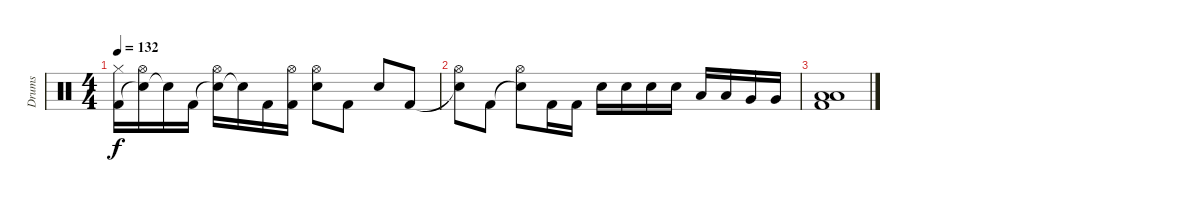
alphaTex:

\track ("Drums" "Drums") {instrument percussion}
\staff {score}
\articulation defaults
\ts (4 4)
\tempo 132
\clef neutral
\ks c
("Kick (hit) 2" "Hi-Hat (closed)").16{dy f} ("Snare (hit)"{t} "Hi-Hat (open)").16 "Snare (hit)"{t}.16 "Kick (hit) 2".16 ("Snare (hit)"{t} "Hi-Hat (open)").16 "Snare (hit)"{t}.16 "Kick (hit) 2".16 ("Kick (hit) 2" "Hi-Hat (open)").16 ("Electric Snare (hit)" "Hi-Hat (open)").8 "Kick (hit) 2".8 "Electric Snare (hit)".8 "Kick (hit) 2".8 |
("Snare (hit)"{t} "Hi-Hat (open)").8 "Kick (hit) 2".8 ("Snare (hit)"{t} "Hi-Hat (open)").8 "Kick (hit) 2".16 "Kick (hit) 2".16 "Electric Snare (hit)".16 "Electric Snare (hit)".16 "Electric Snare (hit)".16 "Electric Snare (hit)".16 "Low Tom (hit)".16 "Low Tom (hit)".16 "Very Low Tom (hit)".16 "Very Low Tom (hit)".16 |
("Low Tom (hit)" "Low Floor Tom (hit)" "Kick (hit) 2").1
